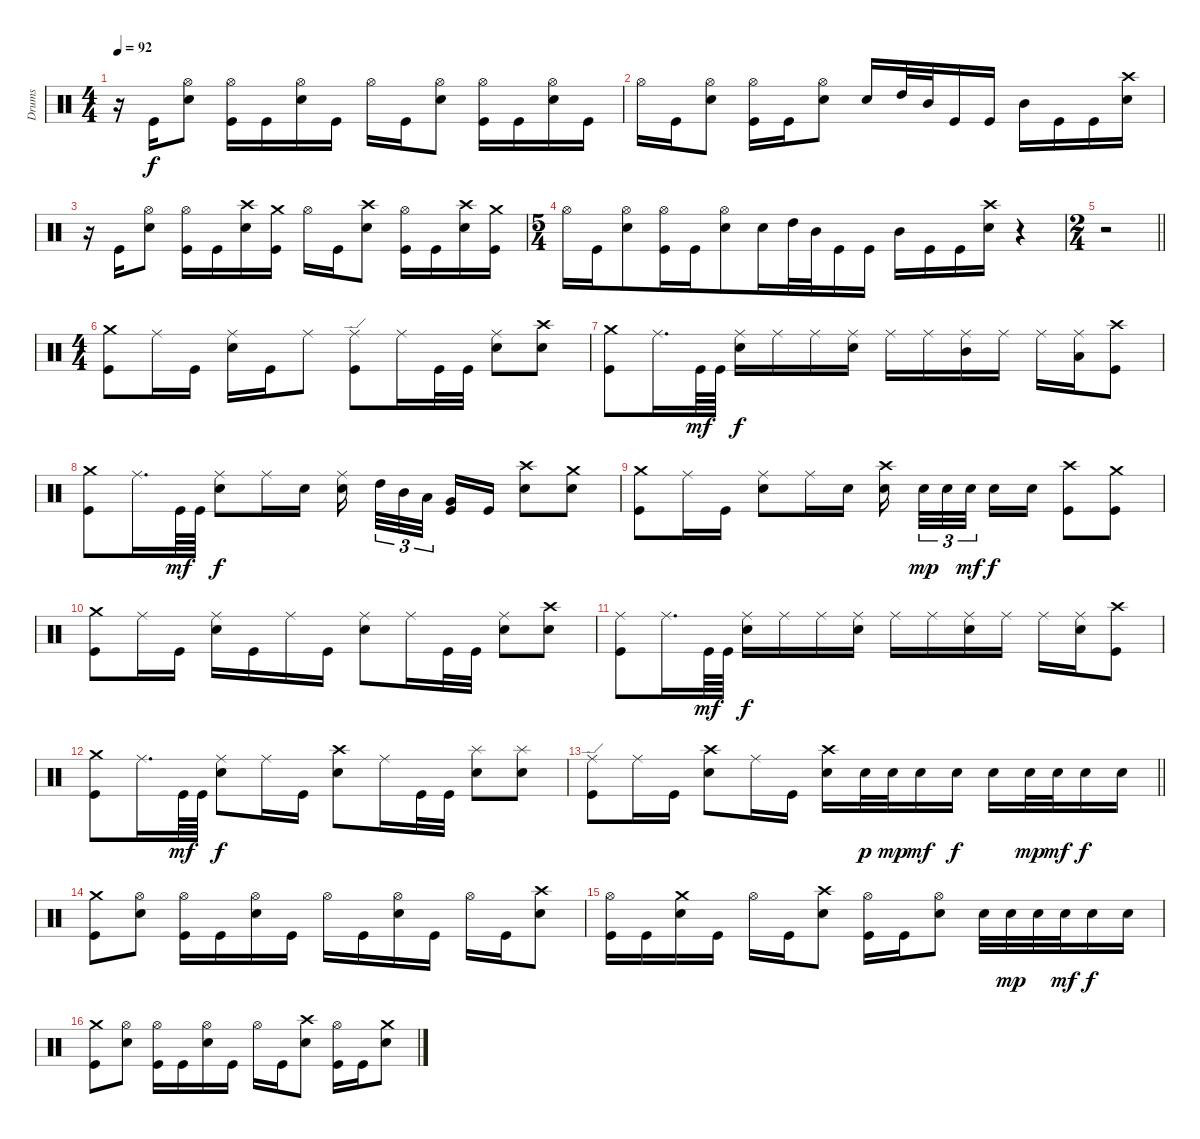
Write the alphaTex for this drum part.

\track ("Drums" "Drums") {instrument percussion}
\staff {score}
\articulation defaults
\ts (4 4)
\tempo 92
\clef neutral
\ks c
r.16{dy f} "Kick (hit)".16 ("Hi-Hat (open)" "Snare (hit) 2").8 ("Hi-Hat (open)" "Kick (hit)").16 "Kick (hit)".16 ("Hi-Hat (open)" "Snare (hit) 2").16 "Kick (hit)".16 "Hi-Hat (open)".16 "Kick (hit)".16 ("Hi-Hat (open)" "Snare (hit) 2").8 ("Hi-Hat (open)" "Kick (hit)").16 "Kick (hit)".16 ("Hi-Hat (open)" "Snare (hit) 2").16 "Kick (hit)".16 |
"Hi-Hat (open)".16 "Kick (hit)".16 ("Hi-Hat (open)" "Snare (hit) 2").8 ("Hi-Hat (open)" "Kick (hit)").16 "Kick (hit)".16 ("Hi-Hat (open)" "Snare (hit) 2").8 "Snare (hit) 2".16 "High Tom (hit)".32 "Mid Tom (hit)".32 "Kick (hit)".16 "Kick (hit)".16 "Mid Tom (hit)".16 "Kick (hit)".16 "Kick (hit)".16 ("Crash high (hit)" "Snare (hit) 2").16 |
r.16 "Kick (hit)".16 ("Hi-Hat (open)" "Snare (hit) 2").8 ("Hi-Hat (open)" "Kick (hit)").16 "Kick (hit)".16 ("Crash high (hit)" "Snare (hit) 2").16 ("Crash medium (hit)" "Kick (hit)").16 "Hi-Hat (open)".16 "Kick (hit)".16 ("Crash high (hit)" "Snare (hit) 2").8 ("Hi-Hat (open)" "Kick (hit)").16 "Kick (hit)".16 ("Crash high (hit)" "Snare (hit) 2").16 ("Crash medium (hit)" "Kick (hit)").16 |
\ts (5 4)
\beaming (8 6 4)
"Hi-Hat (open)".16 "Kick (hit)".16 ("Hi-Hat (open)" "Snare (hit) 2").8 ("Hi-Hat (open)" "Kick (hit)").16 "Kick (hit)".16 ("Hi-Hat (open)" "Snare (hit) 2").8 "Snare (hit) 2".16 "High Tom (hit)".32 "Mid Tom (hit)".32 "Kick (hit)".16 "Kick (hit)".16 "Mid Tom (hit)".16 "Kick (hit)".16 "Kick (hit)".16 ("Crash high (hit)" "Snare (hit) 2").16 r.4 |
\ts (2 4)
\beaming (8 2 2)
\barLineRight lightlight
r.2 |
\ts (4 4)
\beaming (8 2 2 2 2)
("Crash medium (hit)" "Kick (hit)").8 "Ride (middle)".16 "Kick (hit)".16 ("Ride (middle)" "Snare (hit) 2").16 "Kick (hit)".16 "Ride (middle)".8 ("Ride (edge)" "Kick (hit)").8 "Ride (middle)".16 "Kick (hit)".32 "Kick (hit)".32 ("Ride (middle)" "Snare (hit) 2").8 ("Crash high (hit)" "Snare (hit) 2").8 |
("Crash medium (hit)" "Kick (hit)").8 "Ride (middle)".16{d} "Kick (hit)".64{dy mf} "Kick (hit)".64 ("Ride (middle)" "Snare (hit) 2").16{dy f} "Ride (middle)".16 "Ride (middle)".16 ("Ride (middle)" "Snare (hit) 2").16 "Ride (middle)".16 "Ride (middle)".16 ("Ride (middle)" "Mid Tom (hit)").16 "Ride (middle)".16 "Ride (middle)".16 ("Ride (middle)" "Low Tom (hit)").16 ("Crash high (hit)" "Kick (hit)").8 |
("Crash medium (hit)" "Kick (hit)").8 "Ride (middle)".16{d} "Kick (hit)".64{dy mf} "Kick (hit)".64 ("Ride (middle)" "Snare (hit) 2").8{dy f} "Ride (middle)".16 "Snare (hit) 2".16 ("Ride (middle)" "Snare (hit) 2").16 "High Tom (hit)".32{tu (3 2)} "Mid Tom (hit)".32{tu (3 2)} "Low Tom (hit)".32{tu (3 2)} ("Very Low Tom (hit)" "Kick (hit)").16 "Kick (hit)".16 ("Crash high (hit)" "Snare (hit) 2").8 ("Crash medium (hit)" "Snare (hit) 2").8 |
("Crash medium (hit)" "Kick (hit)").8 "Ride (middle)".16 "Kick (hit)".16 ("Ride (middle)" "Snare (hit) 2").8 "Ride (middle)".16 "Snare (hit) 2".16 ("Crash high (hit)" "Snare (hit) 2").16 "Snare (hit) 2".32{tu (3 2) dy mp} "Snare (hit) 2".32{tu (3 2)} "Snare (hit) 2".32{tu (3 2) dy mf} "Snare (hit) 2".16{dy f} "Snare (hit) 2".16 ("Crash high (hit)" "Kick (hit)").8 ("Crash medium (hit)" "Kick (hit)").8 |
("Crash medium (hit)" "Kick (hit)").8 "Ride (middle)".16 "Kick (hit)".16 ("Ride (middle)" "Snare (hit) 2").16 "Kick (hit)".16 "Ride (middle)".16 "Kick (hit)".16 ("Ride (middle)" "Snare (hit) 2").8 "Ride (middle)".16 "Kick (hit)".32 "Kick (hit)".32 ("Ride (middle)" "Snare (hit) 2").8 ("Crash high (hit)" "Snare (hit) 2").8 |
("Ride (middle)" "Kick (hit)").8 "Ride (middle)".16{d} "Kick (hit)".64{dy mf} "Kick (hit)".64 ("Ride (middle)" "Snare (hit) 2").16{dy f} "Ride (middle)".16 "Ride (middle)".16 ("Ride (middle)" "Snare (hit) 2").16 "Ride (middle)".16 "Ride (middle)".16 ("Ride (middle)" "Snare (hit) 2").16 "Ride (middle)".16 "Ride (middle)".16 ("Ride (middle)" "Snare (hit) 2").16 ("Crash high (hit)" "Kick (hit)").8 |
("Crash medium (hit)" "Kick (hit)").8 "Ride (middle)".16{d} "Kick (hit)".64{dy mf} "Kick (hit)".64 ("Ride (middle)" "Snare (hit) 2").8{dy f} "Ride (middle)".16 "Kick (hit)".16 ("Crash high (hit)" "Snare (hit) 2").8 "Ride (middle)".16 "Kick (hit)".32 "Kick (hit)".32 ("Splash (hit)" "Snare (hit) 2").8 ("Splash (hit)" "Snare (hit) 2").8 |
\barLineRight lightlight
("Ride (edge)" "Kick (hit)").8 "Ride (middle)".16 "Kick (hit)".16 ("Crash high (hit)" "Snare (hit) 2").8 "Ride (middle)".16 "Kick (hit)".16 ("Crash high (hit)" "Snare (hit) 2").16 "Snare (hit) 2".32{dy p} "Snare (hit) 2".32{dy mp} "Snare (hit) 2".16{dy mf} "Snare (hit) 2".16{dy f} "Snare (hit) 2".16 "Snare (hit) 2".32{dy mp} "Snare (hit) 2".32{dy mf} "Snare (hit) 2".16{dy f} "Snare (hit) 2".16 |
("Crash medium (hit)" "Kick (hit)").8 ("Hi-Hat (open)" "Snare (hit) 2").8 ("Hi-Hat (open)" "Kick (hit)").16 "Kick (hit)".16 ("Hi-Hat (open)" "Snare (hit) 2").16 "Kick (hit)".16 "Hi-Hat (open)".16 "Kick (hit)".16 ("Hi-Hat (open)" "Snare (hit) 2").16 "Kick (hit)".16 "Hi-Hat (open)".16 "Kick (hit)".16 ("Crash high (hit)" "Snare (hit) 2").8 |
("Hi-Hat (open)" "Kick (hit)").16 "Kick (hit)".16 ("Crash medium (hit)" "Snare (hit) 2").16 "Kick (hit)".16 "Hi-Hat (open)".16 "Kick (hit)".16 ("Crash high (hit)" "Snare (hit) 2").8 ("Hi-Hat (open)" "Kick (hit)").16 "Kick (hit)".16 ("Hi-Hat (open)" "Snare (hit) 2").8 "Snare (hit) 2".32 "Snare (hit) 2".32{dy mp} "Snare (hit) 2".32 "Snare (hit) 2".32{dy mf} "Snare (hit) 2".16{dy f} "Snare (hit) 2".16 |
("Crash medium (hit)" "Kick (hit)").8 ("Hi-Hat (open)" "Snare (hit) 2").8 ("Hi-Hat (open)" "Kick (hit)").16 "Kick (hit)".16 ("Hi-Hat (open)" "Snare (hit) 2").16 "Kick (hit)".16 "Hi-Hat (open)".16 "Kick (hit)".16 ("Crash high (hit)" "Snare (hit) 2").8 ("Hi-Hat (open)" "Kick (hit)").16 "Kick (hit)".16 ("Crash medium (hit)" "Snare (hit) 2").8
